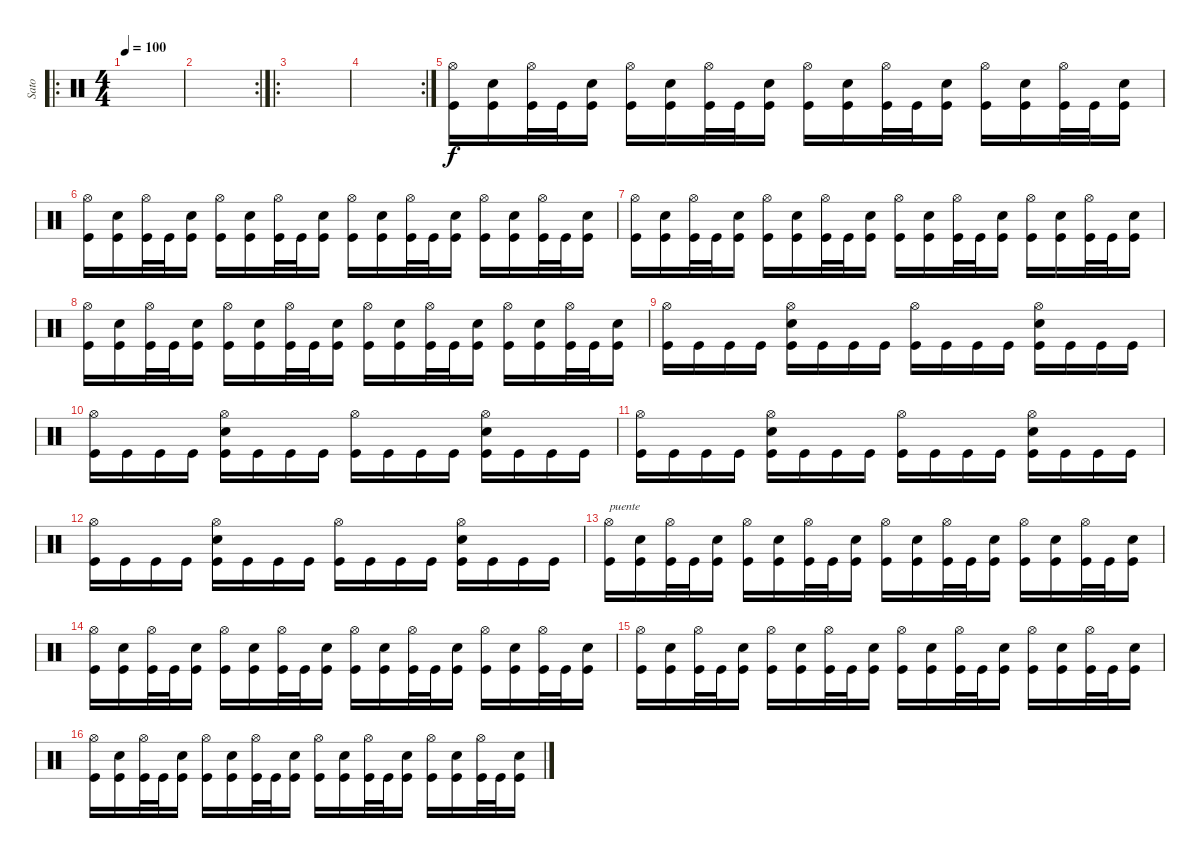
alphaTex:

\track ("Sato" "Sato") {instrument percussion}
\staff {score}
\articulation defaults
\ro
\ts (4 4)
\tempo 100
\clef neutral
\ks c
|
\rc 2
|
\ro
|
\rc 2
|
("Hi-Hat (open)" "Kick (hit)").16 ("Electric Snare (hit)" "Kick (hit)").16 ("Hi-Hat (open)" "Kick (hit)").32 "Kick (hit)".32 ("Electric Snare (hit)" "Kick (hit)").16 ("Hi-Hat (open)" "Kick (hit)").16 ("Electric Snare (hit)" "Kick (hit)").16 ("Hi-Hat (open)" "Kick (hit)").32 "Kick (hit)".32 ("Electric Snare (hit)" "Kick (hit)").16 ("Hi-Hat (open)" "Kick (hit)").16 ("Electric Snare (hit)" "Kick (hit)").16 ("Hi-Hat (open)" "Kick (hit)").32 "Kick (hit)".32 ("Electric Snare (hit)" "Kick (hit)").16 ("Hi-Hat (open)" "Kick (hit)").16 ("Electric Snare (hit)" "Kick (hit)").16 ("Hi-Hat (open)" "Kick (hit)").32 "Kick (hit)".32 ("Electric Snare (hit)" "Kick (hit)").16 |
("Hi-Hat (open)" "Kick (hit)").16 ("Electric Snare (hit)" "Kick (hit)").16 ("Hi-Hat (open)" "Kick (hit)").32 "Kick (hit)".32 ("Electric Snare (hit)" "Kick (hit)").16 ("Hi-Hat (open)" "Kick (hit)").16 ("Electric Snare (hit)" "Kick (hit)").16 ("Hi-Hat (open)" "Kick (hit)").32 "Kick (hit)".32 ("Electric Snare (hit)" "Kick (hit)").16 ("Hi-Hat (open)" "Kick (hit)").16 ("Electric Snare (hit)" "Kick (hit)").16 ("Hi-Hat (open)" "Kick (hit)").32 "Kick (hit)".32 ("Electric Snare (hit)" "Kick (hit)").16 ("Hi-Hat (open)" "Kick (hit)").16 ("Electric Snare (hit)" "Kick (hit)").16 ("Hi-Hat (open)" "Kick (hit)").32 "Kick (hit)".32 ("Electric Snare (hit)" "Kick (hit)").16 |
("Hi-Hat (open)" "Kick (hit)").16 ("Electric Snare (hit)" "Kick (hit)").16 ("Hi-Hat (open)" "Kick (hit)").32 "Kick (hit)".32 ("Electric Snare (hit)" "Kick (hit)").16 ("Hi-Hat (open)" "Kick (hit)").16 ("Electric Snare (hit)" "Kick (hit)").16 ("Hi-Hat (open)" "Kick (hit)").32 "Kick (hit)".32 ("Electric Snare (hit)" "Kick (hit)").16 ("Hi-Hat (open)" "Kick (hit)").16 ("Electric Snare (hit)" "Kick (hit)").16 ("Hi-Hat (open)" "Kick (hit)").32 "Kick (hit)".32 ("Electric Snare (hit)" "Kick (hit)").16 ("Hi-Hat (open)" "Kick (hit)").16 ("Electric Snare (hit)" "Kick (hit)").16 ("Hi-Hat (open)" "Kick (hit)").32 "Kick (hit)".32 ("Electric Snare (hit)" "Kick (hit)").16 |
("Hi-Hat (open)" "Kick (hit)").16 ("Electric Snare (hit)" "Kick (hit)").16 ("Hi-Hat (open)" "Kick (hit)").32 "Kick (hit)".32 ("Electric Snare (hit)" "Kick (hit)").16 ("Hi-Hat (open)" "Kick (hit)").16 ("Electric Snare (hit)" "Kick (hit)").16 ("Hi-Hat (open)" "Kick (hit)").32 "Kick (hit)".32 ("Electric Snare (hit)" "Kick (hit)").16 ("Hi-Hat (open)" "Kick (hit)").16 ("Electric Snare (hit)" "Kick (hit)").16 ("Hi-Hat (open)" "Kick (hit)").32 "Kick (hit)".32 ("Electric Snare (hit)" "Kick (hit)").16 ("Hi-Hat (open)" "Kick (hit)").16 ("Electric Snare (hit)" "Kick (hit)").16 ("Hi-Hat (open)" "Kick (hit)").32 "Kick (hit)".32 ("Electric Snare (hit)" "Kick (hit)").16 |
("Hi-Hat (open)" "Kick (hit)").16 "Kick (hit)".16 "Kick (hit)".16 "Kick (hit)".16 ("Hi-Hat (open)" "Electric Snare (hit)" "Kick (hit)").16 "Kick (hit)".16 "Kick (hit)".16 "Kick (hit)".16 ("Hi-Hat (open)" "Kick (hit)").16 "Kick (hit)".16 "Kick (hit)".16 "Kick (hit)".16 ("Hi-Hat (open)" "Electric Snare (hit)" "Kick (hit)").16 "Kick (hit)".16 "Kick (hit)".16 "Kick (hit)".16 |
("Hi-Hat (open)" "Kick (hit)").16 "Kick (hit)".16 "Kick (hit)".16 "Kick (hit)".16 ("Hi-Hat (open)" "Electric Snare (hit)" "Kick (hit)").16 "Kick (hit)".16 "Kick (hit)".16 "Kick (hit)".16 ("Hi-Hat (open)" "Kick (hit)").16 "Kick (hit)".16 "Kick (hit)".16 "Kick (hit)".16 ("Hi-Hat (open)" "Electric Snare (hit)" "Kick (hit)").16 "Kick (hit)".16 "Kick (hit)".16 "Kick (hit)".16 |
("Hi-Hat (open)" "Kick (hit)").16 "Kick (hit)".16 "Kick (hit)".16 "Kick (hit)".16 ("Hi-Hat (open)" "Electric Snare (hit)" "Kick (hit)").16 "Kick (hit)".16 "Kick (hit)".16 "Kick (hit)".16 ("Hi-Hat (open)" "Kick (hit)").16 "Kick (hit)".16 "Kick (hit)".16 "Kick (hit)".16 ("Hi-Hat (open)" "Electric Snare (hit)" "Kick (hit)").16 "Kick (hit)".16 "Kick (hit)".16 "Kick (hit)".16 |
("Hi-Hat (open)" "Kick (hit)").16 "Kick (hit)".16 "Kick (hit)".16 "Kick (hit)".16 ("Hi-Hat (open)" "Electric Snare (hit)" "Kick (hit)").16 "Kick (hit)".16 "Kick (hit)".16 "Kick (hit)".16 ("Hi-Hat (open)" "Kick (hit)").16 "Kick (hit)".16 "Kick (hit)".16 "Kick (hit)".16 ("Hi-Hat (open)" "Electric Snare (hit)" "Kick (hit)").16 "Kick (hit)".16 "Kick (hit)".16 "Kick (hit)".16 |
("Hi-Hat (open)" "Kick (hit)").16{txt "puente"} ("Electric Snare (hit)" "Kick (hit)").16 ("Hi-Hat (open)" "Kick (hit)").32 "Kick (hit)".32 ("Electric Snare (hit)" "Kick (hit)").16 ("Hi-Hat (open)" "Kick (hit)").16 ("Electric Snare (hit)" "Kick (hit)").16 ("Hi-Hat (open)" "Kick (hit)").32 "Kick (hit)".32 ("Electric Snare (hit)" "Kick (hit)").16 ("Hi-Hat (open)" "Kick (hit)").16 ("Electric Snare (hit)" "Kick (hit)").16 ("Hi-Hat (open)" "Kick (hit)").32 "Kick (hit)".32 ("Electric Snare (hit)" "Kick (hit)").16 ("Hi-Hat (open)" "Kick (hit)").16 ("Electric Snare (hit)" "Kick (hit)").16 ("Hi-Hat (open)" "Kick (hit)").32 "Kick (hit)".32 ("Electric Snare (hit)" "Kick (hit)").16 |
("Hi-Hat (open)" "Kick (hit)").16 ("Electric Snare (hit)" "Kick (hit)").16 ("Hi-Hat (open)" "Kick (hit)").32 "Kick (hit)".32 ("Electric Snare (hit)" "Kick (hit)").16 ("Hi-Hat (open)" "Kick (hit)").16 ("Electric Snare (hit)" "Kick (hit)").16 ("Hi-Hat (open)" "Kick (hit)").32 "Kick (hit)".32 ("Electric Snare (hit)" "Kick (hit)").16 ("Hi-Hat (open)" "Kick (hit)").16 ("Electric Snare (hit)" "Kick (hit)").16 ("Hi-Hat (open)" "Kick (hit)").32 "Kick (hit)".32 ("Electric Snare (hit)" "Kick (hit)").16 ("Hi-Hat (open)" "Kick (hit)").16 ("Electric Snare (hit)" "Kick (hit)").16 ("Hi-Hat (open)" "Kick (hit)").32 "Kick (hit)".32 ("Electric Snare (hit)" "Kick (hit)").16 |
("Hi-Hat (open)" "Kick (hit)").16 ("Electric Snare (hit)" "Kick (hit)").16 ("Hi-Hat (open)" "Kick (hit)").32 "Kick (hit)".32 ("Electric Snare (hit)" "Kick (hit)").16 ("Hi-Hat (open)" "Kick (hit)").16 ("Electric Snare (hit)" "Kick (hit)").16 ("Hi-Hat (open)" "Kick (hit)").32 "Kick (hit)".32 ("Electric Snare (hit)" "Kick (hit)").16 ("Hi-Hat (open)" "Kick (hit)").16 ("Electric Snare (hit)" "Kick (hit)").16 ("Hi-Hat (open)" "Kick (hit)").32 "Kick (hit)".32 ("Electric Snare (hit)" "Kick (hit)").16 ("Hi-Hat (open)" "Kick (hit)").16 ("Electric Snare (hit)" "Kick (hit)").16 ("Hi-Hat (open)" "Kick (hit)").32 "Kick (hit)".32 ("Electric Snare (hit)" "Kick (hit)").16 |
("Hi-Hat (open)" "Kick (hit)").16 ("Electric Snare (hit)" "Kick (hit)").16 ("Hi-Hat (open)" "Kick (hit)").32 "Kick (hit)".32 ("Electric Snare (hit)" "Kick (hit)").16 ("Hi-Hat (open)" "Kick (hit)").16 ("Electric Snare (hit)" "Kick (hit)").16 ("Hi-Hat (open)" "Kick (hit)").32 "Kick (hit)".32 ("Electric Snare (hit)" "Kick (hit)").16 ("Hi-Hat (open)" "Kick (hit)").16 ("Electric Snare (hit)" "Kick (hit)").16 ("Hi-Hat (open)" "Kick (hit)").32 "Kick (hit)".32 ("Electric Snare (hit)" "Kick (hit)").16 ("Hi-Hat (open)" "Kick (hit)").16 ("Electric Snare (hit)" "Kick (hit)").16 ("Hi-Hat (open)" "Kick (hit)").32 "Kick (hit)".32 ("Electric Snare (hit)" "Kick (hit)").16
